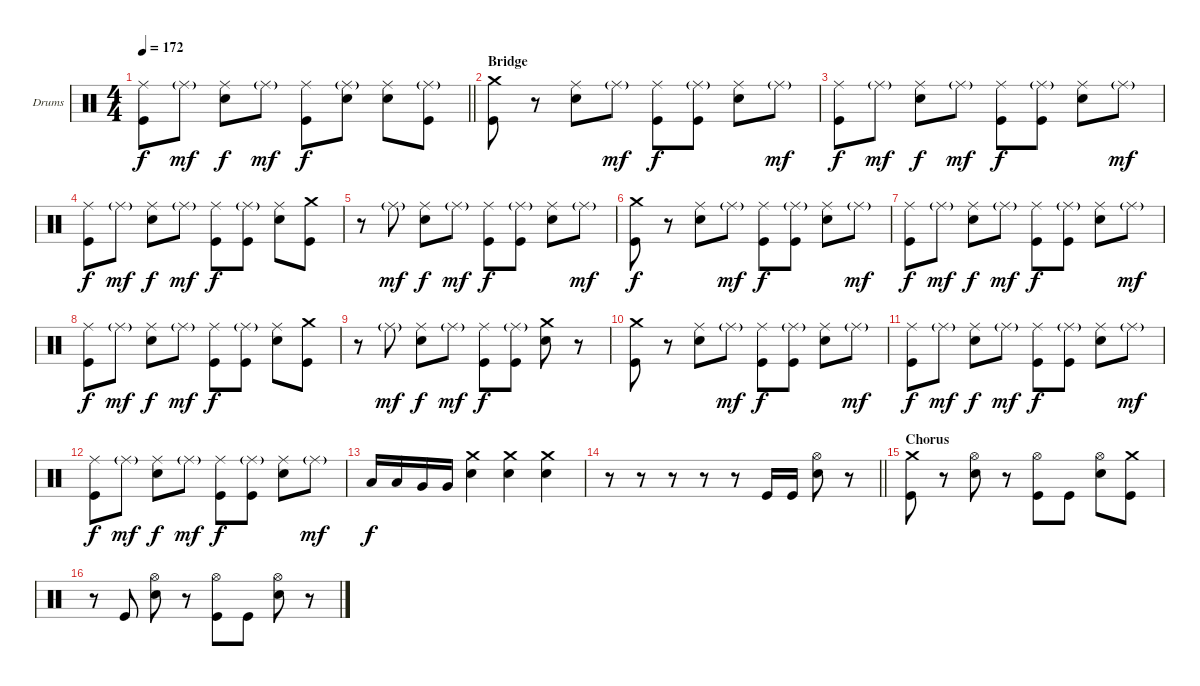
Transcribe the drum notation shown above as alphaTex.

\bracketExtendMode groupsimilarinstruments
\firstSystemTrackNameOrientation horizontal
\otherSystemsTrackNameOrientation horizontal
\track ("Drumkit" "Drums") {instrument percussion}
\staff {score}
\articulation defaults
\ts (4 4)
\tempo 172
\clef neutral
\barLineRight lightlight
\ks c
("Ride (middle)" "Kick (hit)").8{dy f} "Ride (middle)"{g}.8{dy mf} ("Ride (middle)" "Snare (hit) 2").8{dy f} "Ride (middle)"{g}.8{dy mf} ("Ride (middle)" "Kick (hit)").8{dy f} ("Ride (middle)"{g} "Snare (hit) 2").8 ("Ride (middle)" "Snare (hit) 2").8 ("Ride (middle)"{g} "Kick (hit)").8 |
\section ("" "Bridge")
("Crash medium (hit)" "Kick (hit)").8 r.8 ("Ride (middle)" "Snare (hit) 2").8 "Ride (middle)"{g}.8{dy mf} ("Ride (middle)" "Kick (hit)").8{dy f} ("Ride (middle)"{g} "Kick (hit)").8 ("Ride (middle)" "Snare (hit) 2").8 "Ride (middle)"{g}.8{dy mf} |
("Ride (middle)" "Kick (hit)").8{dy f} "Ride (middle)"{g}.8{dy mf} ("Ride (middle)" "Snare (hit) 2").8{dy f} "Ride (middle)"{g}.8{dy mf} ("Ride (middle)" "Kick (hit)").8{dy f} ("Ride (middle)"{g} "Kick (hit)").8 ("Ride (middle)" "Snare (hit) 2").8 "Ride (middle)"{g}.8{dy mf} |
("Ride (middle)" "Kick (hit)").8{dy f} "Ride (middle)"{g}.8{dy mf} ("Ride (middle)" "Snare (hit) 2").8{dy f} "Ride (middle)"{g}.8{dy mf} ("Ride (middle)" "Kick (hit)").8{dy f} ("Ride (middle)"{g} "Kick (hit)").8 ("Ride (middle)" "Snare (hit) 2").8 ("Crash medium (hit)" "Kick (hit)").8 |
r.8 "Ride (middle)"{g}.8{dy mf} ("Ride (middle)" "Snare (hit) 2").8{dy f} "Ride (middle)"{g}.8{dy mf} ("Ride (middle)" "Kick (hit)").8{dy f} ("Ride (middle)"{g} "Kick (hit)").8 ("Ride (middle)" "Snare (hit) 2").8 "Ride (middle)"{g}.8{dy mf} |
("Crash medium (hit)" "Kick (hit)").8{dy f} r.8 ("Ride (middle)" "Snare (hit) 2").8 "Ride (middle)"{g}.8{dy mf} ("Ride (middle)" "Kick (hit)").8{dy f} ("Ride (middle)"{g} "Kick (hit)").8 ("Ride (middle)" "Snare (hit) 2").8 "Ride (middle)"{g}.8{dy mf} |
("Ride (middle)" "Kick (hit)").8{dy f} "Ride (middle)"{g}.8{dy mf} ("Ride (middle)" "Snare (hit) 2").8{dy f} "Ride (middle)"{g}.8{dy mf} ("Ride (middle)" "Kick (hit)").8{dy f} ("Ride (middle)"{g} "Kick (hit)").8 ("Ride (middle)" "Snare (hit) 2").8 "Ride (middle)"{g}.8{dy mf} |
("Ride (middle)" "Kick (hit)").8{dy f} "Ride (middle)"{g}.8{dy mf} ("Ride (middle)" "Snare (hit) 2").8{dy f} "Ride (middle)"{g}.8{dy mf} ("Ride (middle)" "Kick (hit)").8{dy f} ("Ride (middle)"{g} "Kick (hit)").8 ("Ride (middle)" "Snare (hit) 2").8 ("Crash medium (hit)" "Kick (hit)").8 |
r.8 "Ride (middle)"{g}.8{dy mf} ("Ride (middle)" "Snare (hit) 2").8{dy f} "Ride (middle)"{g}.8{dy mf} ("Ride (middle)" "Kick (hit)").8{dy f} ("Ride (middle)"{g} "Kick (hit)").8 ("Crash medium (hit)" "Snare (hit) 2").8 r.8 |
("Crash medium (hit)" "Kick (hit)").8 r.8 ("Ride (middle)" "Snare (hit) 2").8 "Ride (middle)"{g}.8{dy mf} ("Ride (middle)" "Kick (hit)").8{dy f} ("Ride (middle)"{g} "Kick (hit)").8 ("Ride (middle)" "Snare (hit) 2").8 "Ride (middle)"{g}.8{dy mf} |
("Ride (middle)" "Kick (hit)").8{dy f} "Ride (middle)"{g}.8{dy mf} ("Ride (middle)" "Snare (hit) 2").8{dy f} "Ride (middle)"{g}.8{dy mf} ("Ride (middle)" "Kick (hit)").8{dy f} ("Ride (middle)"{g} "Kick (hit)").8 ("Ride (middle)" "Snare (hit) 2").8 "Ride (middle)"{g}.8{dy mf} |
("Ride (middle)" "Kick (hit)").8{dy f} "Ride (middle)"{g}.8{dy mf} ("Ride (middle)" "Snare (hit) 2").8{dy f} "Ride (middle)"{g}.8{dy mf} ("Ride (middle)" "Kick (hit)").8{dy f} ("Ride (middle)"{g} "Kick (hit)").8 ("Ride (middle)" "Snare (hit) 2").8 "Ride (middle)"{g}.8{dy mf} |
"Low Tom (hit)".16{dy f} "Low Tom (hit)".16 "Very Low Tom (hit)".16 "Very Low Tom (hit)".16 ("Crash medium (hit)" "Snare (hit) 2").4 ("Crash medium (hit)" "Snare (hit) 2").4 ("Crash medium (hit)" "Snare (hit) 2").4 |
\barLineRight lightlight
r.8 r.8 r.8 r.8 r.8 "Kick (hit)".16 "Kick (hit)".16 ("Hi-Hat (open)" "Snare (hit) 2").8 r.8 |
\section ("" "Chorus")
("Crash medium (hit)" "Kick (hit)").8 r.8 ("Hi-Hat (open)" "Snare (hit) 2").8 r.8 ("Hi-Hat (open)" "Kick (hit)").8 "Kick (hit)".8 ("Hi-Hat (open)" "Snare (hit) 2").8 ("Crash medium (hit)" "Kick (hit)").8 |
r.8 "Kick (hit)".8 ("Hi-Hat (open)" "Snare (hit) 2").8 r.8 ("Hi-Hat (open)" "Kick (hit)").8 "Kick (hit)".8 ("Hi-Hat (open)" "Snare (hit) 2").8 r.8
